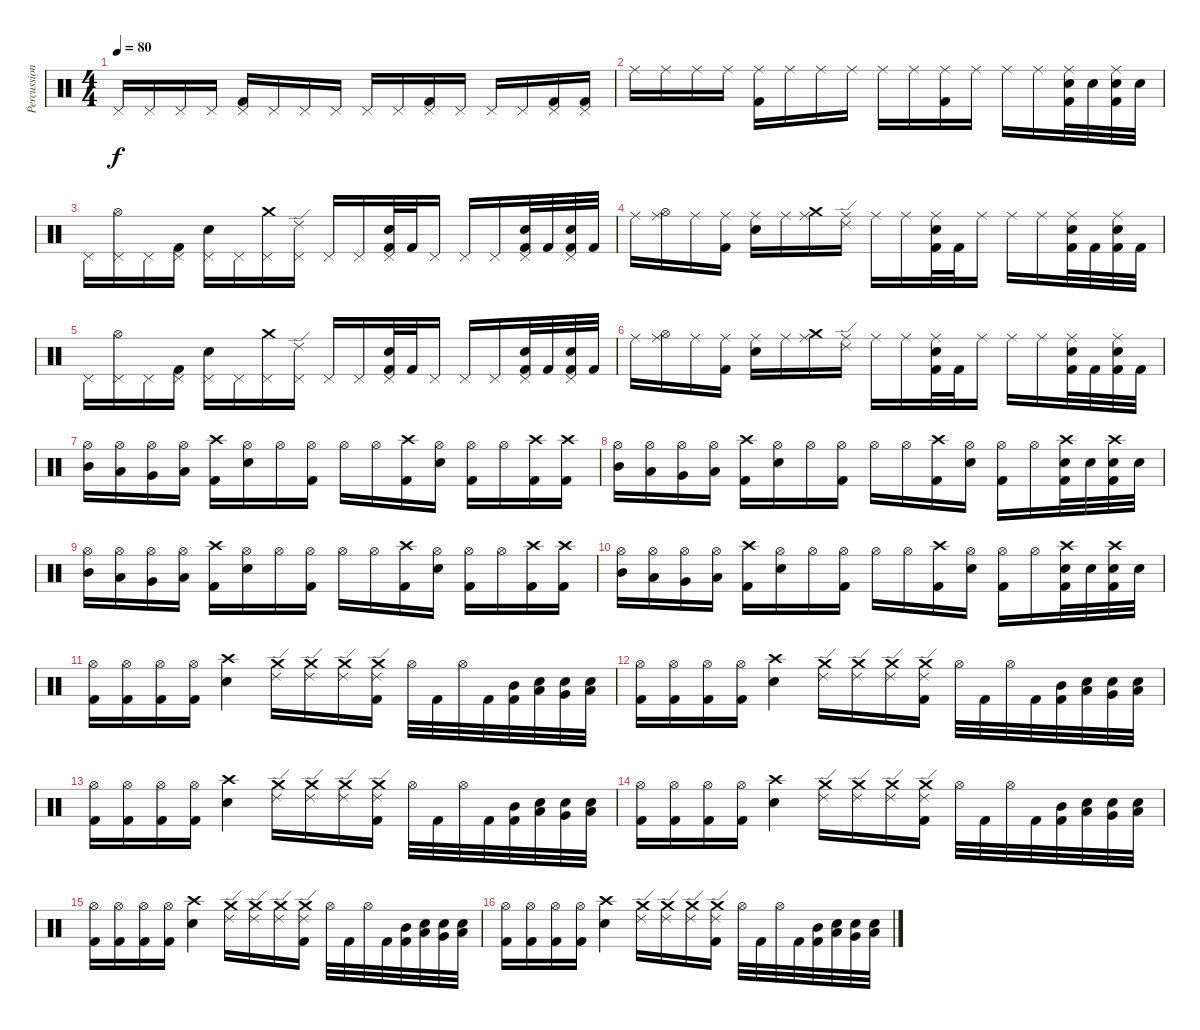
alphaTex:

\track ("Percussions" "Percussion") {instrument percussion}
\staff {score}
\articulation defaults
\ts (4 4)
\tempo 80
\clef neutral
\ks c "Pedal Hi-Hat (hit)".16{dy f} "Pedal Hi-Hat (hit)".16 "Pedal Hi-Hat (hit)".16 "Pedal Hi-Hat (hit)".16
("Pedal Hi-Hat (hit)" "Kick (hit) 2").16 "Pedal Hi-Hat (hit)".16 "Pedal Hi-Hat (hit)".16 "Pedal Hi-Hat (hit)".16 "Pedal Hi-Hat (hit)".16 "Pedal Hi-Hat (hit)".16 ("Pedal Hi-Hat (hit)" "Kick (hit) 2").16 "Pedal Hi-Hat (hit)".16 "Pedal Hi-Hat (hit)".16 "Pedal Hi-Hat (hit)".16 ("Pedal Hi-Hat (hit)" "Kick (hit) 2").16 ("Pedal Hi-Hat (hit)" "Kick (hit) 2").16 |
"Ride (middle)".16 "Ride (middle)".16 "Ride (middle)".16 "Ride (middle)".16 ("Ride (middle)" "Kick (hit) 2").16 "Ride (middle)".16 "Ride (middle)".16 "Ride (middle)".16 "Ride (middle)".16 "Ride (middle)".16 ("Ride (middle)" "Kick (hit) 2").16 "Ride (middle)".16 "Ride (middle)".16 "Ride (middle)".16 ("Ride (middle)" "Kick (hit) 2" "Electric Snare (hit)").32 "Electric Snare (hit)".32 ("Ride (middle)" "Kick (hit) 2" "Electric Snare (hit)").32 "Electric Snare (hit)".32 |
"Pedal Hi-Hat (hit)".16 ("Pedal Hi-Hat (hit)" "Hi-Hat (open)").16 "Pedal Hi-Hat (hit)".16 ("Pedal Hi-Hat (hit)" "Kick (hit) 2").16 ("Pedal Hi-Hat (hit)" "Electric Snare (hit)").16 "Pedal Hi-Hat (hit)".16 ("Pedal Hi-Hat (hit)" "Crash medium (hit)").16 ("Pedal Hi-Hat (hit)" "Ride (edge) 2").16 "Pedal Hi-Hat (hit)".16 "Pedal Hi-Hat (hit)".16 ("Pedal Hi-Hat (hit)" "Kick (hit) 2" "Electric Snare (hit)").32 "Kick (hit) 2".32 "Pedal Hi-Hat (hit)".16 "Pedal Hi-Hat (hit)".16 "Pedal Hi-Hat (hit)".16 ("Pedal Hi-Hat (hit)" "Electric Snare (hit)" "Kick (hit) 2").32 "Kick (hit) 2".32 ("Pedal Hi-Hat (hit)" "Electric Snare (hit)" "Kick (hit) 2").32 "Kick (hit) 2".32 |
"Ride (middle)".16 ("Ride (middle)" "Hi-Hat (open)").16 "Ride (middle)".16 ("Ride (middle)" "Kick (hit) 2").16 ("Ride (middle)" "Electric Snare (hit)").16 "Ride (middle)".16 ("Ride (middle)" "Crash medium (hit)").16 ("Ride (middle)" "Ride (edge) 2").16 "Ride (middle)".16 "Ride (middle)".16 ("Ride (middle)" "Kick (hit) 2" "Electric Snare (hit)").32 "Kick (hit) 2".32 "Ride (middle)".16 "Ride (middle)".16 "Ride (middle)".16 ("Ride (middle)" "Electric Snare (hit)" "Kick (hit) 2").32 "Kick (hit) 2".32 ("Ride (middle)" "Electric Snare (hit)" "Kick (hit) 2").32 "Kick (hit) 2".32 |
"Pedal Hi-Hat (hit)".16 ("Pedal Hi-Hat (hit)" "Hi-Hat (open)").16 "Pedal Hi-Hat (hit)".16 ("Pedal Hi-Hat (hit)" "Kick (hit) 2").16 ("Pedal Hi-Hat (hit)" "Electric Snare (hit)").16 "Pedal Hi-Hat (hit)".16 ("Pedal Hi-Hat (hit)" "Crash medium (hit)").16 ("Pedal Hi-Hat (hit)" "Ride (edge) 2").16 "Pedal Hi-Hat (hit)".16 "Pedal Hi-Hat (hit)".16 ("Pedal Hi-Hat (hit)" "Kick (hit) 2" "Electric Snare (hit)").32 "Kick (hit) 2".32 "Pedal Hi-Hat (hit)".16 "Pedal Hi-Hat (hit)".16 "Pedal Hi-Hat (hit)".16 ("Pedal Hi-Hat (hit)" "Electric Snare (hit)" "Kick (hit) 2").32 "Kick (hit) 2".32 ("Pedal Hi-Hat (hit)" "Electric Snare (hit)" "Kick (hit) 2").32 "Kick (hit) 2".32 |
"Ride (middle)".16 ("Ride (middle)" "Hi-Hat (open)").16 "Ride (middle)".16 ("Ride (middle)" "Kick (hit) 2").16 ("Ride (middle)" "Electric Snare (hit)").16 "Ride (middle)".16 ("Ride (middle)" "Crash medium (hit)").16 ("Ride (middle)" "Ride (edge) 2").16 "Ride (middle)".16 "Ride (middle)".16 ("Ride (middle)" "Kick (hit) 2" "Electric Snare (hit)").32 "Kick (hit) 2".32 "Ride (middle)".16 "Ride (middle)".16 "Ride (middle)".16 ("Ride (middle)" "Electric Snare (hit)" "Kick (hit) 2").32 "Kick (hit) 2".32 ("Ride (middle)" "Electric Snare (hit)" "Kick (hit) 2").32 "Kick (hit) 2".32 |
("Hi-Hat (open)" "Mid Tom (hit)").16 ("Hi-Hat (open)" "Low Tom (hit)").16 ("Hi-Hat (open)" "Very Low Tom (hit)").16 ("Hi-Hat (open)" "Low Floor Tom (hit)").16 ("Crash high (hit)" "Kick (hit) 2").16 ("Hi-Hat (open)" "Snare (hit) 2").16 "Hi-Hat (open)".16 ("Hi-Hat (open)" "Kick (hit) 2").16 "Hi-Hat (open)".16 "Hi-Hat (open)".16 ("Crash high (hit)" "Kick (hit) 2").16 ("Hi-Hat (open)" "Snare (hit) 2").16 ("Hi-Hat (open)" "Kick (hit) 2").16 "Hi-Hat (open)".16 ("Crash high (hit)" "Kick (hit) 2").16 ("Crash high (hit)" "Kick (hit) 2").16 |
("Hi-Hat (open)" "Mid Tom (hit)").16 ("Hi-Hat (open)" "Low Tom (hit)").16 ("Hi-Hat (open)" "Very Low Tom (hit)").16 ("Hi-Hat (open)" "Low Floor Tom (hit)").16 ("Crash high (hit)" "Kick (hit) 2").16 ("Hi-Hat (open)" "Snare (hit) 2").16 "Hi-Hat (open)".16 ("Hi-Hat (open)" "Kick (hit) 2").16 "Hi-Hat (open)".16 "Hi-Hat (open)".16 ("Crash high (hit)" "Kick (hit) 2").16 ("Hi-Hat (open)" "Snare (hit) 2").16 ("Hi-Hat (open)" "Kick (hit) 2").16 "Hi-Hat (open)".16 ("Crash high (hit)" "Kick (hit) 2" "Snare (hit) 2").32 "Snare (hit) 2".32 ("Crash high (hit)" "Kick (hit) 2" "Snare (hit) 2").32 "Snare (hit) 2".32 |
("Hi-Hat (open)" "Mid Tom (hit)").16 ("Hi-Hat (open)" "Low Tom (hit)").16 ("Hi-Hat (open)" "Very Low Tom (hit)").16 ("Hi-Hat (open)" "Low Floor Tom (hit)").16 ("Crash high (hit)" "Kick (hit) 2").16 ("Hi-Hat (open)" "Snare (hit) 2").16 "Hi-Hat (open)".16 ("Hi-Hat (open)" "Kick (hit) 2").16 "Hi-Hat (open)".16 "Hi-Hat (open)".16 ("Crash high (hit)" "Kick (hit) 2").16 ("Hi-Hat (open)" "Snare (hit) 2").16 ("Hi-Hat (open)" "Kick (hit) 2").16 "Hi-Hat (open)".16 ("Crash high (hit)" "Kick (hit) 2").16 ("Crash high (hit)" "Kick (hit) 2").16 |
("Hi-Hat (open)" "Mid Tom (hit)").16 ("Hi-Hat (open)" "Low Tom (hit)").16 ("Hi-Hat (open)" "Very Low Tom (hit)").16 ("Hi-Hat (open)" "Low Floor Tom (hit)").16 ("Crash high (hit)" "Kick (hit) 2").16 ("Hi-Hat (open)" "Snare (hit) 2").16 "Hi-Hat (open)".16 ("Hi-Hat (open)" "Kick (hit) 2").16 "Hi-Hat (open)".16 "Hi-Hat (open)".16 ("Crash high (hit)" "Kick (hit) 2").16 ("Hi-Hat (open)" "Snare (hit) 2").16 ("Hi-Hat (open)" "Kick (hit) 2").16 "Hi-Hat (open)".16 ("Crash high (hit)" "Kick (hit) 2" "Snare (hit) 2").32 "Snare (hit) 2".32 ("Crash high (hit)" "Kick (hit) 2" "Snare (hit) 2").32 "Snare (hit)"{x}.32 |
("Kick (hit) 2" "Hi-Hat (open)").16 ("Kick (hit) 2" "Hi-Hat (open)").16 ("Kick (hit) 2" "Hi-Hat (open)").16 ("Kick (hit) 2" "Hi-Hat (open)").16 ("Snare (hit) 2" "Crash high (hit)").4 ("Ride (edge) 2" "Crash medium (hit)").16 ("Ride (edge) 2" "Crash medium (hit)").16 ("Ride (edge) 2" "Crash medium (hit)").16 ("Ride (edge) 2" "Crash medium (hit)" "Kick (hit) 2").16 "Hi-Hat (open)".32 "Kick (hit) 2".32 "Hi-Hat (open)".32 "Kick (hit) 2".32 ("Mid Tom (hit)" "Kick (hit) 2").32 ("Low Tom (hit)" "Snare (hit) 2").32 ("Very Low Tom (hit)" "Snare (hit) 2").32 ("Low Floor Tom (hit)" "Snare (hit) 2").32 |
("Kick (hit) 2" "Hi-Hat (open)").16 ("Kick (hit) 2" "Hi-Hat (open)").16 ("Kick (hit) 2" "Hi-Hat (open)").16 ("Kick (hit) 2" "Hi-Hat (open)").16 ("Snare (hit) 2" "Crash high (hit)").4 ("Ride (edge) 2" "Crash medium (hit)").16 ("Ride (edge) 2" "Crash medium (hit)").16 ("Ride (edge) 2" "Crash medium (hit)").16 ("Ride (edge) 2" "Crash medium (hit)" "Kick (hit) 2").16 "Hi-Hat (open)".32 "Kick (hit) 2".32 "Hi-Hat (open)".32 "Kick (hit) 2".32 ("Mid Tom (hit)" "Kick (hit) 2").32 ("Low Tom (hit)" "Snare (hit) 2").32 ("Very Low Tom (hit)" "Snare (hit) 2").32 ("Low Floor Tom (hit)" "Snare (hit) 2").32 |
("Kick (hit) 2" "Hi-Hat (open)").16 ("Kick (hit) 2" "Hi-Hat (open)").16 ("Kick (hit) 2" "Hi-Hat (open)").16 ("Kick (hit) 2" "Hi-Hat (open)").16 ("Snare (hit) 2" "Crash high (hit)").4 ("Ride (edge) 2" "Crash medium (hit)").16 ("Ride (edge) 2" "Crash medium (hit)").16 ("Ride (edge) 2" "Crash medium (hit)").16 ("Ride (edge) 2" "Crash medium (hit)" "Kick (hit) 2").16 "Hi-Hat (open)".32 "Kick (hit) 2".32 "Hi-Hat (open)".32 "Kick (hit) 2".32 ("Mid Tom (hit)" "Kick (hit) 2").32 ("Low Tom (hit)" "Snare (hit) 2").32 ("Very Low Tom (hit)" "Snare (hit) 2").32 ("Low Floor Tom (hit)" "Snare (hit) 2").32 |
("Kick (hit) 2" "Hi-Hat (open)").16 ("Kick (hit) 2" "Hi-Hat (open)").16 ("Kick (hit) 2" "Hi-Hat (open)").16 ("Kick (hit) 2" "Hi-Hat (open)").16 ("Snare (hit) 2" "Crash high (hit)").4 ("Ride (edge) 2" "Crash medium (hit)").16 ("Ride (edge) 2" "Crash medium (hit)").16 ("Ride (edge) 2" "Crash medium (hit)").16 ("Ride (edge) 2" "Crash medium (hit)" "Kick (hit) 2").16 "Hi-Hat (open)".32 "Kick (hit) 2".32 "Hi-Hat (open)".32 "Kick (hit) 2".32 ("Mid Tom (hit)" "Kick (hit) 2").32 ("Low Tom (hit)" "Snare (hit) 2").32 ("Very Low Tom (hit)" "Snare (hit) 2").32 ("Low Floor Tom (hit)" "Snare (hit) 2").32 |
("Kick (hit) 2" "Hi-Hat (open)").16 ("Kick (hit) 2" "Hi-Hat (open)").16 ("Kick (hit) 2" "Hi-Hat (open)").16 ("Kick (hit) 2" "Hi-Hat (open)").16 ("Snare (hit) 2" "Crash high (hit)").4 ("Ride (edge) 2" "Crash medium (hit)").16 ("Ride (edge) 2" "Crash medium (hit)").16 ("Ride (edge) 2" "Crash medium (hit)").16 ("Ride (edge) 2" "Crash medium (hit)" "Kick (hit) 2").16 "Hi-Hat (open)".32 "Kick (hit) 2".32 "Hi-Hat (open)".32 "Kick (hit) 2".32 ("Mid Tom (hit)" "Kick (hit) 2").32 ("Low Tom (hit)" "Snare (hit) 2").32 ("Very Low Tom (hit)" "Snare (hit) 2").32 ("Low Floor Tom (hit)" "Snare (hit) 2").32 |
("Kick (hit) 2" "Hi-Hat (open)").16 ("Kick (hit) 2" "Hi-Hat (open)").16 ("Kick (hit) 2" "Hi-Hat (open)").16 ("Kick (hit) 2" "Hi-Hat (open)").16 ("Snare (hit) 2" "Crash high (hit)").4 ("Ride (edge) 2" "Crash medium (hit)").16 ("Ride (edge) 2" "Crash medium (hit)").16 ("Ride (edge) 2" "Crash medium (hit)").16 ("Ride (edge) 2" "Crash medium (hit)" "Kick (hit) 2").16 "Hi-Hat (open)".32 "Kick (hit) 2".32 "Hi-Hat (open)".32 "Kick (hit) 2".32 ("Mid Tom (hit)" "Kick (hit) 2").32 ("Low Tom (hit)" "Snare (hit) 2").32 ("Very Low Tom (hit)" "Snare (hit) 2").32 ("Low Floor Tom (hit)" "Snare (hit) 2").32
